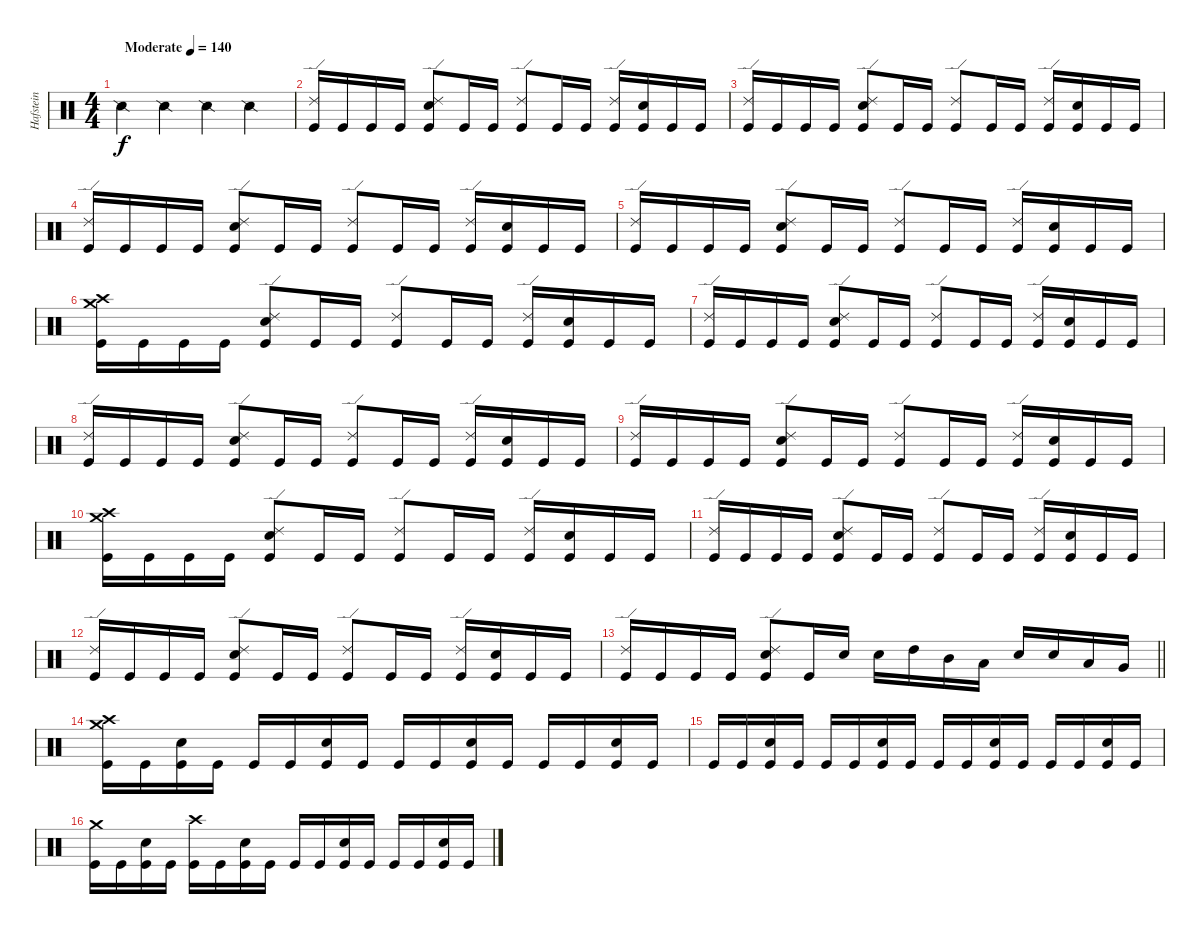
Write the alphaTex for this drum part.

\track ("Hafstein" "Hafstein") {instrument percussion}
\staff {score}
\articulation defaults
\ts (4 4)
\tempo (140 "Moderate")
\clef neutral
\ks c "Snare (side stick) 2".4{dy f} "Snare (side stick) 2".4 "Snare (side stick) 2".4 "Snare (side stick) 2".4
|
("Ride (edge) 2" "Kick (hit)").16 "Kick (hit)".16 "Kick (hit)".16 "Kick (hit)".16 ("Ride (edge) 2" "Electric Snare (hit)" "Kick (hit)").8 "Kick (hit)".16 "Kick (hit)".16 ("Ride (edge) 2" "Kick (hit)").8 "Kick (hit)".16 "Kick (hit)".16 ("Ride (edge) 2" "Kick (hit)").16 ("Electric Snare (hit)" "Kick (hit)").16 "Kick (hit)".16 "Kick (hit)".16 |
("Ride (edge) 2" "Kick (hit)").16 "Kick (hit)".16 "Kick (hit)".16 "Kick (hit)".16 ("Ride (edge) 2" "Electric Snare (hit)" "Kick (hit)").8 "Kick (hit)".16 "Kick (hit)".16 ("Ride (edge) 2" "Kick (hit)").8 "Kick (hit)".16 "Kick (hit)".16 ("Ride (edge) 2" "Kick (hit)").16 ("Electric Snare (hit)" "Kick (hit)").16 "Kick (hit)".16 "Kick (hit)".16 |
("Ride (edge) 2" "Kick (hit)").16 "Kick (hit)".16 "Kick (hit)".16 "Kick (hit)".16 ("Ride (edge) 2" "Electric Snare (hit)" "Kick (hit)").8 "Kick (hit)".16 "Kick (hit)".16 ("Ride (edge) 2" "Kick (hit)").8 "Kick (hit)".16 "Kick (hit)".16 ("Ride (edge) 2" "Kick (hit)").16 ("Electric Snare (hit)" "Kick (hit)").16 "Kick (hit)".16 "Kick (hit)".16 |
("Ride (edge) 2" "Kick (hit)").16 "Kick (hit)".16 "Kick (hit)".16 "Kick (hit)".16 ("Ride (edge) 2" "Electric Snare (hit)" "Kick (hit)").8 "Kick (hit)".16 "Kick (hit)".16 ("Ride (edge) 2" "Kick (hit)").8 "Kick (hit)".16 "Kick (hit)".16 ("Ride (edge) 2" "Kick (hit)").16 ("Electric Snare (hit)" "Kick (hit)").16 "Kick (hit)".16 "Kick (hit)".16 |
("Crash medium (hit)" "Crash high (hit)" "Kick (hit)").16 "Kick (hit)".16 "Kick (hit)".16 "Kick (hit)".16 ("Ride (edge) 2" "Electric Snare (hit)" "Kick (hit)").8 "Kick (hit)".16 "Kick (hit)".16 ("Ride (edge) 2" "Kick (hit)").8 "Kick (hit)".16 "Kick (hit)".16 ("Ride (edge) 2" "Kick (hit)").16 ("Electric Snare (hit)" "Kick (hit)").16 "Kick (hit)".16 "Kick (hit)".16 |
("Ride (edge) 2" "Kick (hit)").16 "Kick (hit)".16 "Kick (hit)".16 "Kick (hit)".16 ("Ride (edge) 2" "Electric Snare (hit)" "Kick (hit)").8 "Kick (hit)".16 "Kick (hit)".16 ("Ride (edge) 2" "Kick (hit)").8 "Kick (hit)".16 "Kick (hit)".16 ("Ride (edge) 2" "Kick (hit)").16 ("Electric Snare (hit)" "Kick (hit)").16 "Kick (hit)".16 "Kick (hit)".16 |
("Ride (edge) 2" "Kick (hit)").16 "Kick (hit)".16 "Kick (hit)".16 "Kick (hit)".16 ("Ride (edge) 2" "Electric Snare (hit)" "Kick (hit)").8 "Kick (hit)".16 "Kick (hit)".16 ("Ride (edge) 2" "Kick (hit)").8 "Kick (hit)".16 "Kick (hit)".16 ("Ride (edge) 2" "Kick (hit)").16 ("Electric Snare (hit)" "Kick (hit)").16 "Kick (hit)".16 "Kick (hit)".16 |
("Ride (edge) 2" "Kick (hit)").16 "Kick (hit)".16 "Kick (hit)".16 "Kick (hit)".16 ("Ride (edge) 2" "Electric Snare (hit)" "Kick (hit)").8 "Kick (hit)".16 "Kick (hit)".16 ("Ride (edge) 2" "Kick (hit)").8 "Kick (hit)".16 "Kick (hit)".16 ("Ride (edge) 2" "Kick (hit)").16 ("Electric Snare (hit)" "Kick (hit)").16 "Kick (hit)".16 "Kick (hit)".16 |
("Crash medium (hit)" "Crash high (hit)" "Kick (hit)").16 "Kick (hit)".16 "Kick (hit)".16 "Kick (hit)".16 ("Ride (edge) 2" "Electric Snare (hit)" "Kick (hit)").8 "Kick (hit)".16 "Kick (hit)".16 ("Ride (edge) 2" "Kick (hit)").8 "Kick (hit)".16 "Kick (hit)".16 ("Ride (edge) 2" "Kick (hit)").16 ("Electric Snare (hit)" "Kick (hit)").16 "Kick (hit)".16 "Kick (hit)".16 |
("Ride (edge) 2" "Kick (hit)").16 "Kick (hit)".16 "Kick (hit)".16 "Kick (hit)".16 ("Ride (edge) 2" "Electric Snare (hit)" "Kick (hit)").8 "Kick (hit)".16 "Kick (hit)".16 ("Ride (edge) 2" "Kick (hit)").8 "Kick (hit)".16 "Kick (hit)".16 ("Ride (edge) 2" "Kick (hit)").16 ("Electric Snare (hit)" "Kick (hit)").16 "Kick (hit)".16 "Kick (hit)".16 |
("Ride (edge) 2" "Kick (hit)").16 "Kick (hit)".16 "Kick (hit)".16 "Kick (hit)".16 ("Ride (edge) 2" "Electric Snare (hit)" "Kick (hit)").8 "Kick (hit)".16 "Kick (hit)".16 ("Ride (edge) 2" "Kick (hit)").8 "Kick (hit)".16 "Kick (hit)".16 ("Ride (edge) 2" "Kick (hit)").16 ("Electric Snare (hit)" "Kick (hit)").16 "Kick (hit)".16 "Kick (hit)".16 |
\barLineRight lightlight
("Ride (edge) 2" "Kick (hit)").16 "Kick (hit)".16 "Kick (hit)".16 "Kick (hit)".16 ("Ride (edge) 2" "Electric Snare (hit)" "Kick (hit)").8 "Kick (hit)".16 "Electric Snare (hit)".16 "Electric Snare (hit)".16 "High Tom (hit)".16 "Mid Tom (hit)".16 "Low Tom (hit)".16 "Electric Snare (hit)".16 "Electric Snare (hit)".16 "Low Tom (hit)".16 "Very Low Tom (hit)".16 |
\section ("" "")
("Crash medium (hit)" "Crash high (hit)" "Kick (hit)").16 "Kick (hit)".16 ("Electric Snare (hit)" "Kick (hit)").16 "Kick (hit)".16 "Kick (hit)".16 "Kick (hit)".16 ("Electric Snare (hit)" "Kick (hit)").16 "Kick (hit)".16 "Kick (hit)".16 "Kick (hit)".16 ("Electric Snare (hit)" "Kick (hit)").16 "Kick (hit)".16 "Kick (hit)".16 "Kick (hit)".16 ("Electric Snare (hit)" "Kick (hit)").16 "Kick (hit)".16 |
"Kick (hit)".16 "Kick (hit)".16 ("Electric Snare (hit)" "Kick (hit)").16 "Kick (hit)".16 "Kick (hit)".16 "Kick (hit)".16 ("Electric Snare (hit)" "Kick (hit)").16 "Kick (hit)".16 "Kick (hit)".16 "Kick (hit)".16 ("Electric Snare (hit)" "Kick (hit)").16 "Kick (hit)".16 "Kick (hit)".16 "Kick (hit)".16 ("Electric Snare (hit)" "Kick (hit)").16 "Kick (hit)".16 |
("Crash medium (hit)" "Kick (hit)").16 "Kick (hit)".16 ("Electric Snare (hit)" "Kick (hit)").16 "Kick (hit)".16 ("Crash high (hit)" "Kick (hit)").16 "Kick (hit)".16 ("Electric Snare (hit)" "Kick (hit)").16 "Kick (hit)".16 "Kick (hit)".16 "Kick (hit)".16 ("Electric Snare (hit)" "Kick (hit)").16 "Kick (hit)".16 "Kick (hit)".16 "Kick (hit)".16 ("Electric Snare (hit)" "Kick (hit)").16 "Kick (hit)".16
